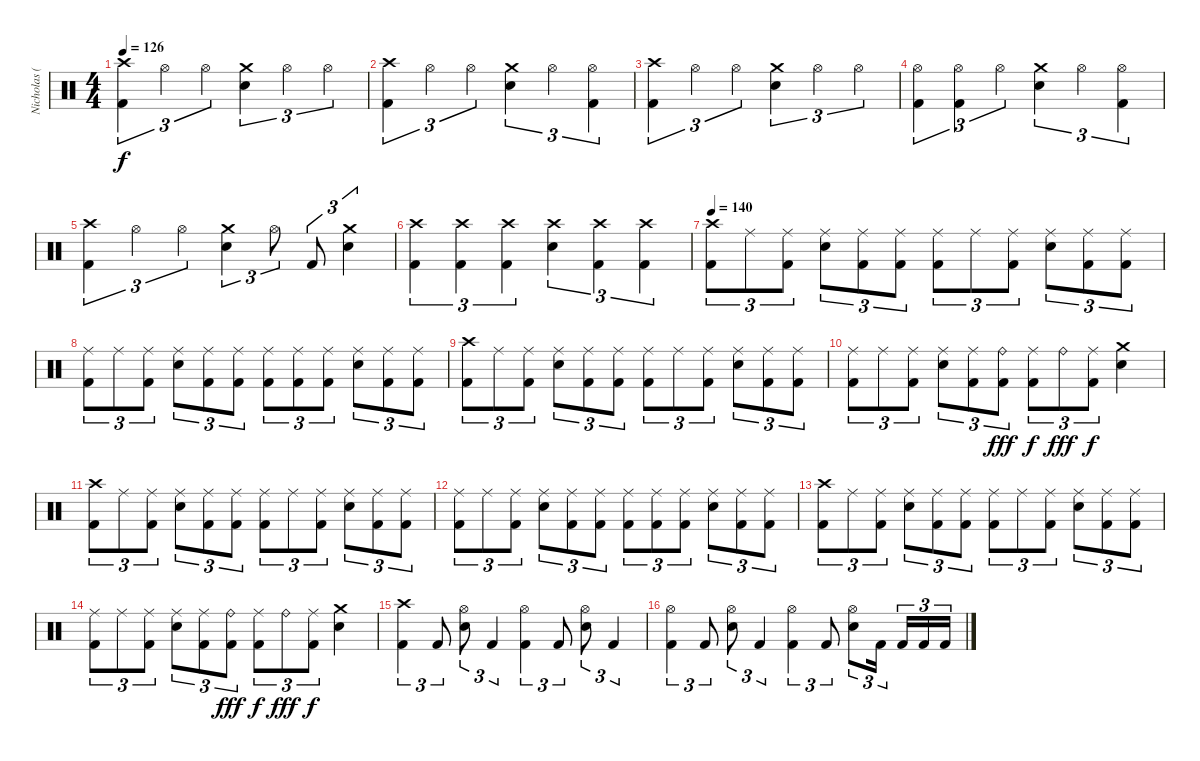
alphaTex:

\track ("Nicholas (Drums)" "Nicholas (") {instrument percussion}
\staff {score}
\articulation defaults
\ts (4 4)
\tempo 126
\clef neutral
\ks c
("Crash high (hit)" "Kick (hit) 2").4{tu (3 2) dy f} "Hi-Hat (open)".4{tu (3 2)} "Hi-Hat (open)".4{tu (3 2)} ("Crash medium (hit)" "Electric Snare (hit)").4{tu (3 2)} "Hi-Hat (open)".4{tu (3 2)} "Hi-Hat (open)".4{tu (3 2)} |
("Crash high (hit)" "Kick (hit) 2").4{tu (3 2)} "Hi-Hat (open)".4{tu (3 2)} "Hi-Hat (open)".4{tu (3 2)} ("Crash medium (hit)" "Electric Snare (hit)").4{tu (3 2)} "Hi-Hat (open)".4{tu (3 2)} ("Hi-Hat (open)" "Kick (hit) 2").4{tu (3 2)} |
("Crash high (hit)" "Kick (hit) 2").4{tu (3 2)} "Hi-Hat (open)".4{tu (3 2)} "Hi-Hat (open)".4{tu (3 2)} ("Crash medium (hit)" "Electric Snare (hit)").4{tu (3 2)} "Hi-Hat (open)".4{tu (3 2)} "Hi-Hat (open)".4{tu (3 2)} |
("Hi-Hat (open)" "Kick (hit) 2").4{tu (3 2)} ("Hi-Hat (open)" "Kick (hit) 2").4{tu (3 2)} "Hi-Hat (open)".4{tu (3 2)} ("Crash medium (hit)" "Electric Snare (hit)").4{tu (3 2)} "Hi-Hat (open)".4{tu (3 2)} ("Hi-Hat (open)" "Kick (hit) 2").4{tu (3 2)} |
("Crash high (hit)" "Kick (hit) 2").4{tu (3 2)} "Hi-Hat (open)".4{tu (3 2)} "Hi-Hat (open)".4{tu (3 2)} ("Crash medium (hit)" "Electric Snare (hit)").4{tu (3 2)} "Hi-Hat (open)".8{tu (3 2)} "Kick (hit) 2".8{tu (3 2)} ("Crash medium (hit)" "Electric Snare (hit)").4{tu (3 2)} |
("Crash high (hit)" "Kick (hit) 2").4{tu (3 2)} ("Crash high (hit)" "Kick (hit) 2").4{tu (3 2)} ("Crash high (hit)" "Kick (hit) 2").4{tu (3 2)} ("Crash high (hit)" "Electric Snare (hit)").4{tu (3 2)} ("Crash high (hit)" "Kick (hit) 2").4{tu (3 2)} ("Crash high (hit)" "Kick (hit) 2").4{tu (3 2)} |
\tempo 140
("Crash high (hit)" "Kick (hit) 2").8{tu (3 2)} "Ride (middle)".8{tu (3 2)} ("Ride (middle)" "Kick (hit) 2").8{tu (3 2)} ("Ride (middle)" "Electric Snare (hit)").8{tu (3 2)} ("Ride (middle)" "Kick (hit) 2").8{tu (3 2)} ("Ride (middle)" "Kick (hit) 2").8{tu (3 2)} ("Ride (middle)" "Kick (hit) 2").8{tu (3 2)} "Ride (middle)".8{tu (3 2)} ("Ride (middle)" "Kick (hit) 2").8{tu (3 2)} ("Ride (middle)" "Electric Snare (hit)").8{tu (3 2)} ("Ride (middle)" "Kick (hit) 2").8{tu (3 2)} ("Ride (middle)" "Kick (hit) 2").8{tu (3 2)} |
("Ride (middle)" "Kick (hit) 2").8{tu (3 2)} "Ride (middle)".8{tu (3 2)} ("Ride (middle)" "Kick (hit) 2").8{tu (3 2)} ("Ride (middle)" "Electric Snare (hit)").8{tu (3 2)} ("Ride (middle)" "Kick (hit) 2").8{tu (3 2)} ("Ride (middle)" "Kick (hit) 2").8{tu (3 2)} ("Ride (middle)" "Kick (hit) 2").8{tu (3 2)} ("Ride (middle)" "Kick (hit) 2").8{tu (3 2)} ("Ride (middle)" "Kick (hit) 2").8{tu (3 2)} ("Ride (middle)" "Electric Snare (hit)").8{tu (3 2)} ("Ride (middle)" "Kick (hit) 2").8{tu (3 2)} ("Ride (middle)" "Kick (hit) 2").8{tu (3 2)} |
("Crash high (hit)" "Kick (hit) 2").8{tu (3 2)} "Ride (middle)".8{tu (3 2)} ("Ride (middle)" "Kick (hit) 2").8{tu (3 2)} ("Ride (middle)" "Electric Snare (hit)").8{tu (3 2)} ("Ride (middle)" "Kick (hit) 2").8{tu (3 2)} ("Ride (middle)" "Kick (hit) 2").8{tu (3 2)} ("Ride (middle)" "Kick (hit) 2").8{tu (3 2)} "Ride (middle)".8{tu (3 2)} ("Ride (middle)" "Kick (hit) 2").8{tu (3 2)} ("Ride (middle)" "Electric Snare (hit)").8{tu (3 2)} ("Ride (middle)" "Kick (hit) 2").8{tu (3 2)} ("Ride (middle)" "Kick (hit) 2").8{tu (3 2)} |
("Ride (middle)" "Kick (hit) 2").8{tu (3 2)} "Ride (middle)".8{tu (3 2)} ("Ride (middle)" "Kick (hit) 2").8{tu (3 2)} ("Ride (middle)" "Electric Snare (hit)").8{tu (3 2)} ("Ride (middle)" "Kick (hit) 2").8{tu (3 2)} ("Ride (bell)" "Kick (hit) 2").8{tu (3 2) dy fff} ("Ride (middle)" "Kick (hit) 2").8{tu (3 2) dy f} "Ride (bell)".8{tu (3 2) dy fff} ("Ride (middle)" "Kick (hit) 2").8{tu (3 2) dy f} ("Crash medium (hit)" "Electric Snare (hit)").4 |
("Crash high (hit)" "Kick (hit) 2").8{tu (3 2)} "Ride (middle)".8{tu (3 2)} ("Ride (middle)" "Kick (hit) 2").8{tu (3 2)} ("Ride (middle)" "Electric Snare (hit)").8{tu (3 2)} ("Ride (middle)" "Kick (hit) 2").8{tu (3 2)} ("Ride (middle)" "Kick (hit) 2").8{tu (3 2)} ("Ride (middle)" "Kick (hit) 2").8{tu (3 2)} "Ride (middle)".8{tu (3 2)} ("Ride (middle)" "Kick (hit) 2").8{tu (3 2)} ("Ride (middle)" "Electric Snare (hit)").8{tu (3 2)} ("Ride (middle)" "Kick (hit) 2").8{tu (3 2)} ("Ride (middle)" "Kick (hit) 2").8{tu (3 2)} |
("Ride (middle)" "Kick (hit) 2").8{tu (3 2)} "Ride (middle)".8{tu (3 2)} ("Ride (middle)" "Kick (hit) 2").8{tu (3 2)} ("Ride (middle)" "Electric Snare (hit)").8{tu (3 2)} ("Ride (middle)" "Kick (hit) 2").8{tu (3 2)} ("Ride (middle)" "Kick (hit) 2").8{tu (3 2)} ("Ride (middle)" "Kick (hit) 2").8{tu (3 2)} ("Ride (middle)" "Kick (hit) 2").8{tu (3 2)} ("Ride (middle)" "Kick (hit) 2").8{tu (3 2)} ("Ride (middle)" "Electric Snare (hit)").8{tu (3 2)} ("Ride (middle)" "Kick (hit) 2").8{tu (3 2)} ("Ride (middle)" "Kick (hit) 2").8{tu (3 2)} |
("Crash high (hit)" "Kick (hit) 2").8{tu (3 2)} "Ride (middle)".8{tu (3 2)} ("Ride (middle)" "Kick (hit) 2").8{tu (3 2)} ("Ride (middle)" "Electric Snare (hit)").8{tu (3 2)} ("Ride (middle)" "Kick (hit) 2").8{tu (3 2)} ("Ride (middle)" "Kick (hit) 2").8{tu (3 2)} ("Ride (middle)" "Kick (hit) 2").8{tu (3 2)} "Ride (middle)".8{tu (3 2)} ("Ride (middle)" "Kick (hit) 2").8{tu (3 2)} ("Ride (middle)" "Electric Snare (hit)").8{tu (3 2)} ("Ride (middle)" "Kick (hit) 2").8{tu (3 2)} ("Ride (middle)" "Kick (hit) 2").8{tu (3 2)} |
("Ride (middle)" "Kick (hit) 2").8{tu (3 2)} "Ride (middle)".8{tu (3 2)} ("Ride (middle)" "Kick (hit) 2").8{tu (3 2)} ("Ride (middle)" "Electric Snare (hit)").8{tu (3 2)} ("Ride (middle)" "Kick (hit) 2").8{tu (3 2)} ("Ride (bell)" "Kick (hit) 2").8{tu (3 2) dy fff} ("Ride (middle)" "Kick (hit) 2").8{tu (3 2) dy f} "Ride (bell)".8{tu (3 2) dy fff} ("Ride (middle)" "Kick (hit) 2").8{tu (3 2) dy f} ("Crash medium (hit)" "Electric Snare (hit)").4 |
("Crash high (hit)" "Kick (hit) 2").4{tu (3 2)} "Kick (hit) 2".8{tu (3 2)} ("Hi-Hat (open)" "Electric Snare (hit)").8{tu (3 2)} "Kick (hit) 2".4{tu (3 2)} ("Hi-Hat (open)" "Kick (hit) 2").4{tu (3 2)} "Kick (hit) 2".8{tu (3 2)} ("Hi-Hat (open)" "Electric Snare (hit)").8{tu (3 2)} "Kick (hit) 2".4{tu (3 2)} |
("Hi-Hat (open)" "Kick (hit) 2").4{tu (3 2)} "Kick (hit) 2".8{tu (3 2)} ("Hi-Hat (open)" "Electric Snare (hit)").8{tu (3 2)} "Kick (hit) 2".4{tu (3 2)} ("Hi-Hat (open)" "Kick (hit) 2").4{tu (3 2)} "Kick (hit) 2".8{tu (3 2)} ("Hi-Hat (open)" "Electric Snare (hit)").8{tu (3 2)} "Kick (hit) 2".16{tu (3 2)} "Kick (hit) 2".16{tu (3 2)} "Kick (hit) 2".16{tu (3 2)} "Kick (hit) 2".16{tu (3 2)}
